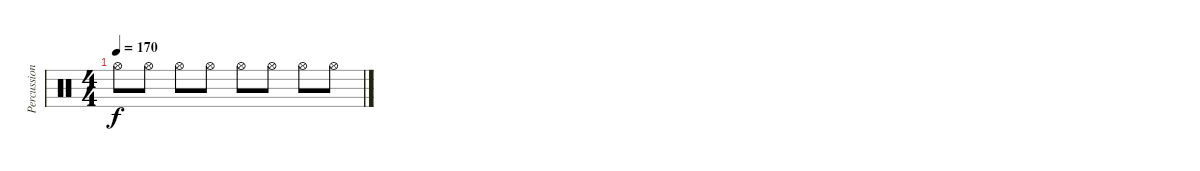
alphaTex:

\track ("Percussion" "Percussion") {instrument percussion}
\staff {score}
\articulation defaults
\ts (4 4)
\tempo 170
\clef neutral
\ks c "Hi-Hat (open)".8{dy f} "Hi-Hat (open)".8 "Hi-Hat (open)".8 "Hi-Hat (open)".8 "Hi-Hat (open)".8 "Hi-Hat (open)".8 "Hi-Hat (open)".8 "Hi-Hat (open)".8
